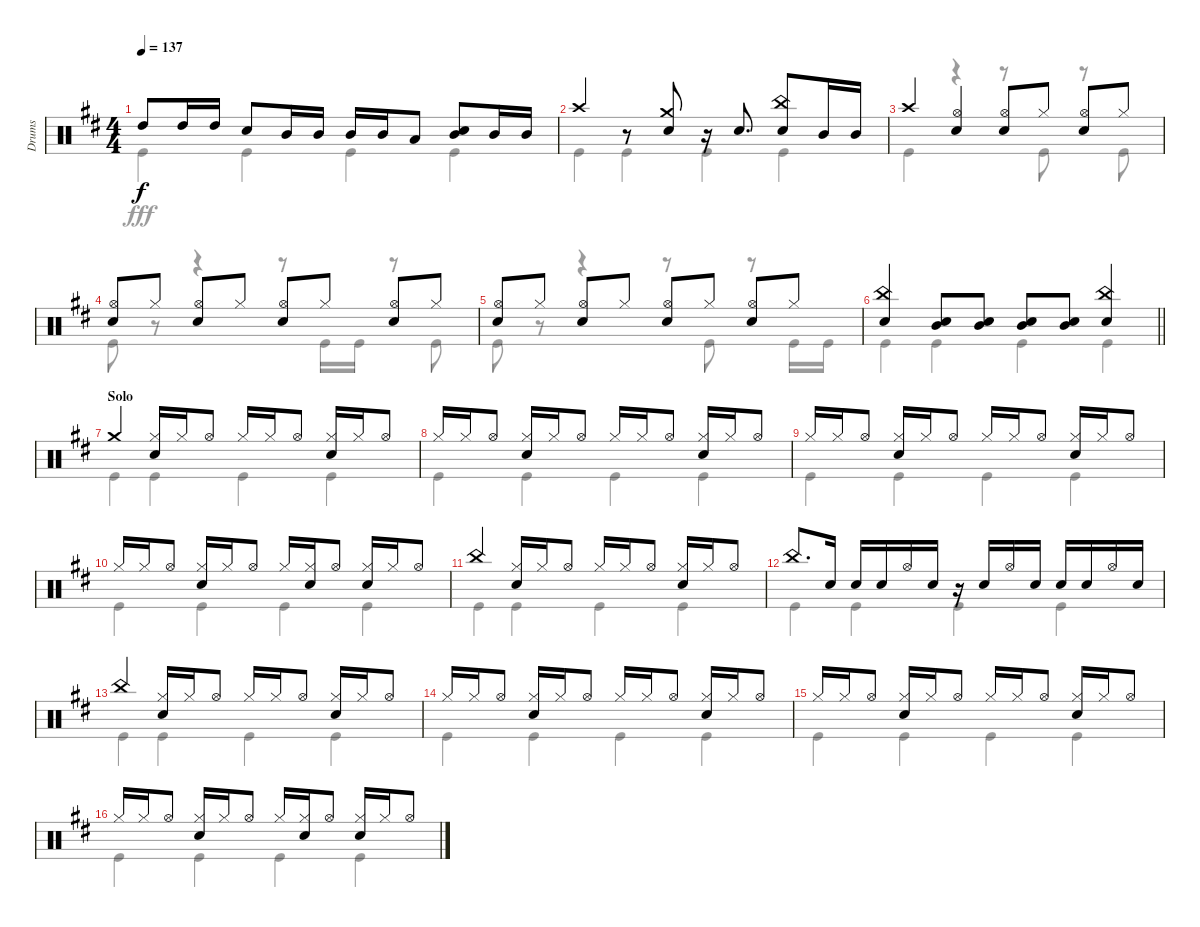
\track ("Drums" "Drums") {instrument percussion}
\staff {score}
\articulation defaults
\voice
\ts (4 4)
\tempo 137
\clef neutral
\ks d "High Tom (hit)".8{dy f} "High Tom (hit)".16 "High Tom (hit)".16 "Snare (hit) 2".8 "Mid Tom (hit)".16 "Mid Tom (hit)".16 "Mid Tom (hit)".16 "Mid Tom (hit)".16 "Low Tom (hit)".8
("Snare (hit) 2" "Mid Tom (hit)").8 "Mid Tom (hit)".16 "Mid Tom (hit)".16 |
"Crash high (hit)".4 r.8 ("Crash medium (hit)" "Snare (hit) 2").8 r.16 "Snare (hit) 2".8{d} ("China (hit)" "Snare (hit) 2").8 "Mid Tom (hit)".16 "Mid Tom (hit)".16 |
"Crash high (hit)".4 ("Hi-Hat (open)" "Snare (hit) 2").4 ("Hi-Hat (open)" "Snare (hit) 2").8 "Hi-Hat (closed)".8 ("Hi-Hat (open)" "Snare (hit) 2").8 "Hi-Hat (closed)".8 |
("Hi-Hat (open)" "Snare (hit) 2").8 "Hi-Hat (closed)".8 ("Hi-Hat (open)" "Snare (hit) 2").8 "Hi-Hat (closed)".8 ("Hi-Hat (open)" "Snare (hit) 2").8 "Hi-Hat (closed)".8 ("Hi-Hat (open)" "Snare (hit) 2").8 "Hi-Hat (closed)".8 |
("Hi-Hat (open)" "Snare (hit) 2").8 "Hi-Hat (closed)".8 ("Hi-Hat (open)" "Snare (hit) 2").8 "Hi-Hat (closed)".8 ("Hi-Hat (open)" "Snare (hit) 2").8 "Hi-Hat (closed)".8 ("Hi-Hat (open)" "Snare (hit) 2").8 "Hi-Hat (closed)".8 |
\barLineRight lightlight
("China (hit)" "Snare (hit) 2").4 ("Snare (hit) 2" "Mid Tom (hit)").8 ("Snare (hit) 2" "Mid Tom (hit)").8 ("Snare (hit) 2" "Mid Tom (hit)").8 ("Snare (hit) 2" "Mid Tom (hit)").8 ("China (hit)" "Snare (hit) 2").4 |
\section ("" "Solo")
"Crash medium (hit)".4 ("Hi-Hat (closed)" "Snare (hit) 2").16 "Hi-Hat (closed)".16 "Hi-Hat (open)".8 "Hi-Hat (closed)".16 "Hi-Hat (closed)".16 "Hi-Hat (open)".8 ("Hi-Hat (closed)" "Snare (hit) 2").16 "Hi-Hat (closed)".16 "Hi-Hat (open)".8 |
"Hi-Hat (closed)".16 "Hi-Hat (closed)".16 "Hi-Hat (open)".8 ("Hi-Hat (closed)" "Snare (hit) 2").16 "Hi-Hat (closed)".16 "Hi-Hat (open)".8 "Hi-Hat (closed)".16 "Hi-Hat (closed)".16 "Hi-Hat (open)".8 ("Hi-Hat (closed)" "Snare (hit) 2").16 "Hi-Hat (closed)".16 "Hi-Hat (open)".8 |
"Hi-Hat (closed)".16 "Hi-Hat (closed)".16 "Hi-Hat (open)".8 ("Hi-Hat (closed)" "Snare (hit) 2").16 "Hi-Hat (closed)".16 "Hi-Hat (open)".8 "Hi-Hat (closed)".16 "Hi-Hat (closed)".16 "Hi-Hat (open)".8 ("Hi-Hat (closed)" "Snare (hit) 2").16 "Hi-Hat (closed)".16 "Hi-Hat (open)".8 |
"Hi-Hat (closed)".16 "Hi-Hat (closed)".16 "Hi-Hat (open)".8 ("Hi-Hat (closed)" "Snare (hit) 2").16 "Hi-Hat (closed)".16 "Hi-Hat (open)".8 "Hi-Hat (closed)".16 ("Hi-Hat (closed)" "Snare (hit) 2").16 "Hi-Hat (open)".8 ("Hi-Hat (closed)" "Snare (hit) 2").16 "Hi-Hat (closed)".16 "Hi-Hat (open)".8 |
"China (hit)".4 ("Hi-Hat (closed)" "Snare (hit) 2").16 "Hi-Hat (closed)".16 "Hi-Hat (open)".8 "Hi-Hat (closed)".16 "Hi-Hat (closed)".16 "Hi-Hat (open)".8 ("Hi-Hat (closed)" "Snare (hit) 2").16 "Hi-Hat (closed)".16 "Hi-Hat (open)".8 |
"China (hit)".8{d} "Snare (hit) 2".16 "Snare (hit) 2".16 "Snare (hit) 2".16 "Hi-Hat (open)".16 "Snare (hit) 2".16 r.16 "Snare (hit) 2".16 "Hi-Hat (open)".16 "Snare (hit) 2".16 "Snare (hit) 2".16 "Snare (hit) 2".16 "Hi-Hat (open)".16 "Snare (hit) 2".16 |
"China (hit)".4 ("Hi-Hat (closed)" "Snare (hit) 2").16 "Hi-Hat (closed)".16 "Hi-Hat (open)".8 "Hi-Hat (closed)".16 "Hi-Hat (closed)".16 "Hi-Hat (open)".8 ("Hi-Hat (closed)" "Snare (hit) 2").16 "Hi-Hat (closed)".16 "Hi-Hat (open)".8 |
"Hi-Hat (closed)".16 "Hi-Hat (closed)".16 "Hi-Hat (open)".8 ("Hi-Hat (closed)" "Snare (hit) 2").16 "Hi-Hat (closed)".16 "Hi-Hat (open)".8 "Hi-Hat (closed)".16 "Hi-Hat (closed)".16 "Hi-Hat (open)".8 ("Hi-Hat (closed)" "Snare (hit) 2").16 "Hi-Hat (closed)".16 "Hi-Hat (open)".8 |
"Hi-Hat (closed)".16 "Hi-Hat (closed)".16 "Hi-Hat (open)".8 ("Hi-Hat (closed)" "Snare (hit) 2").16 "Hi-Hat (closed)".16 "Hi-Hat (open)".8 "Hi-Hat (closed)".16 "Hi-Hat (closed)".16 "Hi-Hat (open)".8 ("Hi-Hat (closed)" "Snare (hit) 2").16 "Hi-Hat (closed)".16 "Hi-Hat (open)".8 |
"Hi-Hat (closed)".16 "Hi-Hat (closed)".16 "Hi-Hat (open)".8 ("Hi-Hat (closed)" "Snare (hit) 2").16 "Hi-Hat (closed)".16 "Hi-Hat (open)".8 "Hi-Hat (closed)".16 ("Hi-Hat (closed)" "Snare (hit) 2").16 "Hi-Hat (open)".8 ("Hi-Hat (closed)" "Snare (hit) 2").16 "Hi-Hat (closed)".16 "Hi-Hat (open)".8
\voice
\clef neutral
\ottava regular
\simile none
\ks d "Kick (hit)".4{dy fff} "Kick (hit)".4 "Kick (hit)".4 "Kick (hit)".4
|
"Kick (hit)".4 "Kick (hit)".4 "Kick (hit)".4 "Kick (hit)".4 |
"Kick (hit)".4 r.4 r.8 "Kick (hit)".8 r.8 "Kick (hit)".8 |
"Kick (hit)".8 r.8 r.4 r.8 "Kick (hit)".16 "Kick (hit)".16 r.8 "Kick (hit)".8 |
"Kick (hit)".8 r.8 r.4 r.8 "Kick (hit)".8 r.8 "Kick (hit)".16 "Kick (hit)".16 |
\barLineRight lightlight "Kick (hit)".4 "Kick (hit)".4 "Kick (hit)".4 "Kick (hit)".4
|
"Kick (hit)".4 "Kick (hit)".4 "Kick (hit)".4 "Kick (hit)".4 |
"Kick (hit)".4 "Kick (hit)".4 "Kick (hit)".4 "Kick (hit)".4 |
"Kick (hit)".4 "Kick (hit)".4 "Kick (hit)".4 "Kick (hit)".4 |
"Kick (hit)".4 "Kick (hit)".4 "Kick (hit)".4 "Kick (hit)".4 |
"Kick (hit)".4 "Kick (hit)".4 "Kick (hit)".4 "Kick (hit)".4 |
"Kick (hit)".4 "Kick (hit)".4 "Kick (hit)".4 "Kick (hit)".4 |
"Kick (hit)".4 "Kick (hit)".4 "Kick (hit)".4 "Kick (hit)".4 |
"Kick (hit)".4 "Kick (hit)".4 "Kick (hit)".4 "Kick (hit)".4 |
"Kick (hit)".4 "Kick (hit)".4 "Kick (hit)".4 "Kick (hit)".4 |
"Kick (hit)".4 "Kick (hit)".4 "Kick (hit)".4 "Kick (hit)".4
